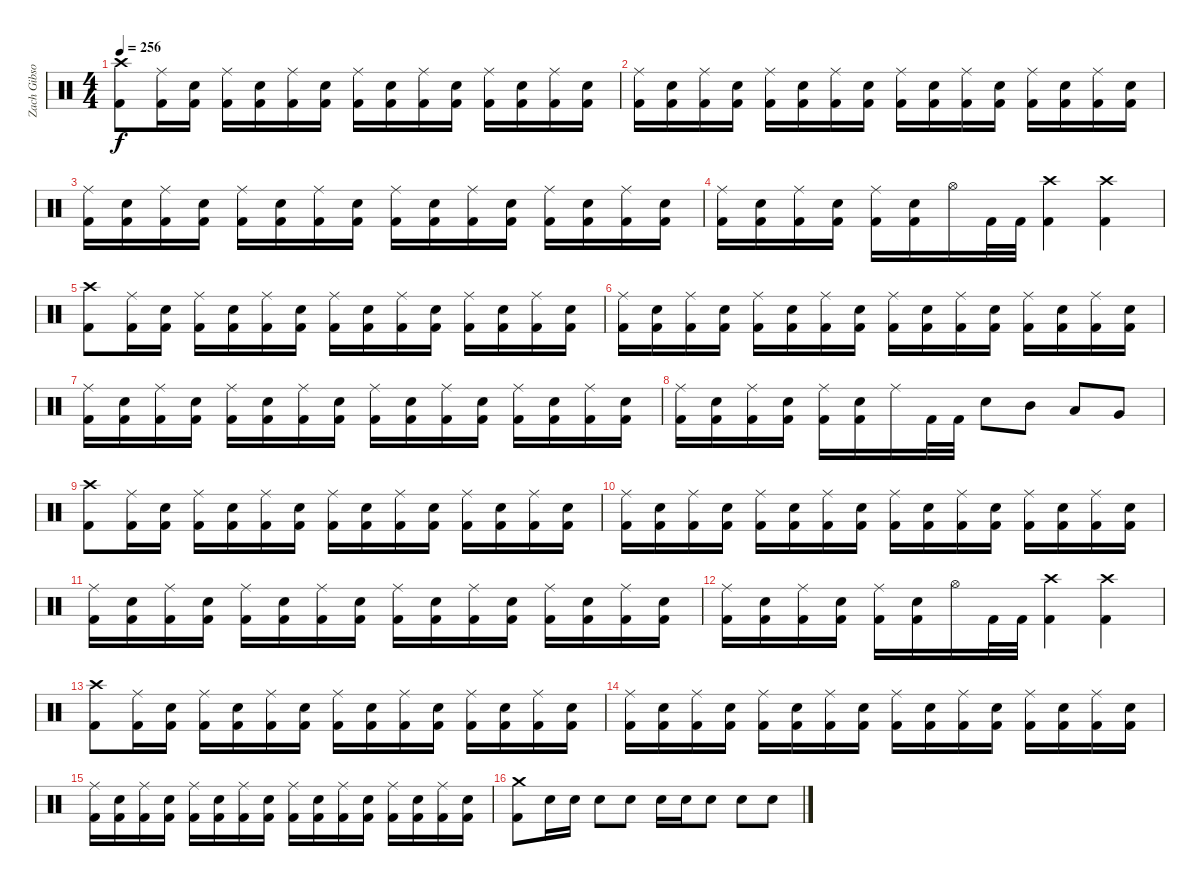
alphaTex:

\track ("Zach Gibson (Drums)" "Zach Gibso") {instrument percussion}
\staff {score}
\articulation defaults
\ts (4 4)
\tempo 256
\clef neutral
\ks c
("Crash high (hit)" "Kick (hit) 2").8{dy f} ("Ride (middle)" "Kick (hit) 2").16 ("Snare (hit) 2" "Kick (hit) 2").16 ("Ride (middle)" "Kick (hit) 2").16 ("Snare (hit) 2" "Kick (hit) 2").16 ("Ride (middle)" "Kick (hit) 2").16 ("Snare (hit) 2" "Kick (hit) 2").16 ("Ride (middle)" "Kick (hit) 2").16 ("Snare (hit) 2" "Kick (hit) 2").16 ("Ride (middle)" "Kick (hit) 2").16 ("Snare (hit) 2" "Kick (hit) 2").16 ("Ride (middle)" "Kick (hit) 2").16 ("Kick (hit) 2" "Snare (hit) 2").16 ("Ride (middle)" "Kick (hit) 2").16 ("Kick (hit) 2" "Snare (hit) 2").16 |
("Ride (middle)" "Kick (hit) 2").16 ("Snare (hit) 2" "Kick (hit) 2").16 ("Ride (middle)" "Kick (hit) 2").16 ("Snare (hit) 2" "Kick (hit) 2").16 ("Ride (middle)" "Kick (hit) 2").16 ("Snare (hit) 2" "Kick (hit) 2").16 ("Ride (middle)" "Kick (hit) 2").16 ("Snare (hit) 2" "Kick (hit) 2").16 ("Ride (middle)" "Kick (hit) 2").16 ("Snare (hit) 2" "Kick (hit) 2").16 ("Ride (middle)" "Kick (hit) 2").16 ("Snare (hit) 2" "Kick (hit) 2").16 ("Ride (middle)" "Kick (hit) 2").16 ("Snare (hit) 2" "Kick (hit) 2").16 ("Ride (middle)" "Kick (hit) 2").16 ("Snare (hit) 2" "Kick (hit) 2").16 |
("Ride (middle)" "Kick (hit) 2").16 ("Snare (hit) 2" "Kick (hit) 2").16 ("Ride (middle)" "Kick (hit) 2").16 ("Snare (hit) 2" "Kick (hit) 2").16 ("Ride (middle)" "Kick (hit) 2").16 ("Snare (hit) 2" "Kick (hit) 2").16 ("Ride (middle)" "Kick (hit) 2").16 ("Snare (hit) 2" "Kick (hit) 2").16 ("Ride (middle)" "Kick (hit) 2").16 ("Snare (hit) 2" "Kick (hit) 2").16 ("Ride (middle)" "Kick (hit) 2").16 ("Snare (hit) 2" "Kick (hit) 2").16 ("Ride (middle)" "Kick (hit) 2").16 ("Snare (hit) 2" "Kick (hit) 2").16 ("Ride (middle)" "Kick (hit) 2").16 ("Snare (hit) 2" "Kick (hit) 2").16 |
("Ride (middle)" "Kick (hit) 2").16 ("Snare (hit) 2" "Kick (hit) 2").16 ("Ride (middle)" "Kick (hit) 2").16 ("Snare (hit) 2" "Kick (hit) 2").16 ("Ride (middle)" "Kick (hit) 2").16 ("Snare (hit) 2" "Kick (hit) 2").16 "Hi-Hat (open)".16 "Kick (hit) 2".32 "Kick (hit) 2".32 ("Crash high (hit)" "Kick (hit) 2").4 ("Crash high (hit)" "Kick (hit) 2").4 |
("Crash high (hit)" "Kick (hit) 2").8 ("Ride (middle)" "Kick (hit) 2").16 ("Snare (hit) 2" "Kick (hit) 2").16 ("Ride (middle)" "Kick (hit) 2").16 ("Snare (hit) 2" "Kick (hit) 2").16 ("Ride (middle)" "Kick (hit) 2").16 ("Snare (hit) 2" "Kick (hit) 2").16 ("Ride (middle)" "Kick (hit) 2").16 ("Snare (hit) 2" "Kick (hit) 2").16 ("Ride (middle)" "Kick (hit) 2").16 ("Snare (hit) 2" "Kick (hit) 2").16 ("Ride (middle)" "Kick (hit) 2").16 ("Kick (hit) 2" "Snare (hit) 2").16 ("Ride (middle)" "Kick (hit) 2").16 ("Kick (hit) 2" "Snare (hit) 2").16 |
("Ride (middle)" "Kick (hit) 2").16 ("Snare (hit) 2" "Kick (hit) 2").16 ("Ride (middle)" "Kick (hit) 2").16 ("Snare (hit) 2" "Kick (hit) 2").16 ("Ride (middle)" "Kick (hit) 2").16 ("Snare (hit) 2" "Kick (hit) 2").16 ("Ride (middle)" "Kick (hit) 2").16 ("Snare (hit) 2" "Kick (hit) 2").16 ("Ride (middle)" "Kick (hit) 2").16 ("Snare (hit) 2" "Kick (hit) 2").16 ("Ride (middle)" "Kick (hit) 2").16 ("Snare (hit) 2" "Kick (hit) 2").16 ("Ride (middle)" "Kick (hit) 2").16 ("Snare (hit) 2" "Kick (hit) 2").16 ("Ride (middle)" "Kick (hit) 2").16 ("Snare (hit) 2" "Kick (hit) 2").16 |
("Ride (middle)" "Kick (hit) 2").16 ("Snare (hit) 2" "Kick (hit) 2").16 ("Ride (middle)" "Kick (hit) 2").16 ("Snare (hit) 2" "Kick (hit) 2").16 ("Ride (middle)" "Kick (hit) 2").16 ("Snare (hit) 2" "Kick (hit) 2").16 ("Ride (middle)" "Kick (hit) 2").16 ("Snare (hit) 2" "Kick (hit) 2").16 ("Ride (middle)" "Kick (hit) 2").16 ("Snare (hit) 2" "Kick (hit) 2").16 ("Ride (middle)" "Kick (hit) 2").16 ("Snare (hit) 2" "Kick (hit) 2").16 ("Ride (middle)" "Kick (hit) 2").16 ("Snare (hit) 2" "Kick (hit) 2").16 ("Ride (middle)" "Kick (hit) 2").16 ("Snare (hit) 2" "Kick (hit) 2").16 |
("Ride (middle)" "Kick (hit) 2").16 ("Snare (hit) 2" "Kick (hit) 2").16 ("Ride (middle)" "Kick (hit) 2").16 ("Snare (hit) 2" "Kick (hit) 2").16 ("Ride (middle)" "Kick (hit) 2").16 ("Snare (hit) 2" "Kick (hit) 2").16 "Ride (middle)".16 "Kick (hit) 2".32 "Kick (hit) 2".32 "Snare (hit) 2".8 "Mid Tom (hit)".8 "Low Tom (hit)".8 "Very Low Tom (hit)".8 |
("Crash high (hit)" "Kick (hit) 2").8 ("Ride (middle)" "Kick (hit) 2").16 ("Snare (hit) 2" "Kick (hit) 2").16 ("Ride (middle)" "Kick (hit) 2").16 ("Snare (hit) 2" "Kick (hit) 2").16 ("Ride (middle)" "Kick (hit) 2").16 ("Snare (hit) 2" "Kick (hit) 2").16 ("Ride (middle)" "Kick (hit) 2").16 ("Snare (hit) 2" "Kick (hit) 2").16 ("Ride (middle)" "Kick (hit) 2").16 ("Snare (hit) 2" "Kick (hit) 2").16 ("Ride (middle)" "Kick (hit) 2").16 ("Kick (hit) 2" "Snare (hit) 2").16 ("Ride (middle)" "Kick (hit) 2").16 ("Kick (hit) 2" "Snare (hit) 2").16 |
("Ride (middle)" "Kick (hit) 2").16 ("Snare (hit) 2" "Kick (hit) 2").16 ("Ride (middle)" "Kick (hit) 2").16 ("Snare (hit) 2" "Kick (hit) 2").16 ("Ride (middle)" "Kick (hit) 2").16 ("Snare (hit) 2" "Kick (hit) 2").16 ("Ride (middle)" "Kick (hit) 2").16 ("Snare (hit) 2" "Kick (hit) 2").16 ("Ride (middle)" "Kick (hit) 2").16 ("Snare (hit) 2" "Kick (hit) 2").16 ("Ride (middle)" "Kick (hit) 2").16 ("Snare (hit) 2" "Kick (hit) 2").16 ("Ride (middle)" "Kick (hit) 2").16 ("Snare (hit) 2" "Kick (hit) 2").16 ("Ride (middle)" "Kick (hit) 2").16 ("Snare (hit) 2" "Kick (hit) 2").16 |
("Ride (middle)" "Kick (hit) 2").16 ("Snare (hit) 2" "Kick (hit) 2").16 ("Ride (middle)" "Kick (hit) 2").16 ("Snare (hit) 2" "Kick (hit) 2").16 ("Ride (middle)" "Kick (hit) 2").16 ("Snare (hit) 2" "Kick (hit) 2").16 ("Ride (middle)" "Kick (hit) 2").16 ("Snare (hit) 2" "Kick (hit) 2").16 ("Ride (middle)" "Kick (hit) 2").16 ("Snare (hit) 2" "Kick (hit) 2").16 ("Ride (middle)" "Kick (hit) 2").16 ("Snare (hit) 2" "Kick (hit) 2").16 ("Ride (middle)" "Kick (hit) 2").16 ("Snare (hit) 2" "Kick (hit) 2").16 ("Ride (middle)" "Kick (hit) 2").16 ("Snare (hit) 2" "Kick (hit) 2").16 |
("Ride (middle)" "Kick (hit) 2").16 ("Snare (hit) 2" "Kick (hit) 2").16 ("Ride (middle)" "Kick (hit) 2").16 ("Snare (hit) 2" "Kick (hit) 2").16 ("Ride (middle)" "Kick (hit) 2").16 ("Snare (hit) 2" "Kick (hit) 2").16 "Hi-Hat (open)".16 "Kick (hit) 2".32 "Kick (hit) 2".32 ("Crash high (hit)" "Kick (hit) 2").4 ("Crash high (hit)" "Kick (hit) 2").4 |
("Crash high (hit)" "Kick (hit) 2").8 ("Ride (middle)" "Kick (hit) 2").16 ("Snare (hit) 2" "Kick (hit) 2").16 ("Ride (middle)" "Kick (hit) 2").16 ("Snare (hit) 2" "Kick (hit) 2").16 ("Ride (middle)" "Kick (hit) 2").16 ("Snare (hit) 2" "Kick (hit) 2").16 ("Ride (middle)" "Kick (hit) 2").16 ("Snare (hit) 2" "Kick (hit) 2").16 ("Ride (middle)" "Kick (hit) 2").16 ("Snare (hit) 2" "Kick (hit) 2").16 ("Ride (middle)" "Kick (hit) 2").16 ("Kick (hit) 2" "Snare (hit) 2").16 ("Ride (middle)" "Kick (hit) 2").16 ("Kick (hit) 2" "Snare (hit) 2").16 |
("Ride (middle)" "Kick (hit) 2").16 ("Snare (hit) 2" "Kick (hit) 2").16 ("Ride (middle)" "Kick (hit) 2").16 ("Snare (hit) 2" "Kick (hit) 2").16 ("Ride (middle)" "Kick (hit) 2").16 ("Snare (hit) 2" "Kick (hit) 2").16 ("Ride (middle)" "Kick (hit) 2").16 ("Snare (hit) 2" "Kick (hit) 2").16 ("Ride (middle)" "Kick (hit) 2").16 ("Snare (hit) 2" "Kick (hit) 2").16 ("Ride (middle)" "Kick (hit) 2").16 ("Snare (hit) 2" "Kick (hit) 2").16 ("Ride (middle)" "Kick (hit) 2").16 ("Snare (hit) 2" "Kick (hit) 2").16 ("Ride (middle)" "Kick (hit) 2").16 ("Snare (hit) 2" "Kick (hit) 2").16 |
("Ride (middle)" "Kick (hit) 2").16 ("Snare (hit) 2" "Kick (hit) 2").16 ("Ride (middle)" "Kick (hit) 2").16 ("Snare (hit) 2" "Kick (hit) 2").16 ("Ride (middle)" "Kick (hit) 2").16 ("Snare (hit) 2" "Kick (hit) 2").16 ("Ride (middle)" "Kick (hit) 2").16 ("Snare (hit) 2" "Kick (hit) 2").16 ("Ride (middle)" "Kick (hit) 2").16 ("Snare (hit) 2" "Kick (hit) 2").16 ("Ride (middle)" "Kick (hit) 2").16 ("Snare (hit) 2" "Kick (hit) 2").16 ("Ride (middle)" "Kick (hit) 2").16 ("Snare (hit) 2" "Kick (hit) 2").16 ("Ride (middle)" "Kick (hit) 2").16 ("Snare (hit) 2" "Kick (hit) 2").16 |
("Crash medium (hit)" "Kick (hit) 2").8 "Snare (hit) 2".16 "Snare (hit) 2".16 "Snare (hit) 2".8 "Snare (hit) 2".8 "Snare (hit) 2".16 "Snare (hit) 2".16 "Snare (hit) 2".8 "Snare (hit) 2".8 "Snare (hit) 2".8
